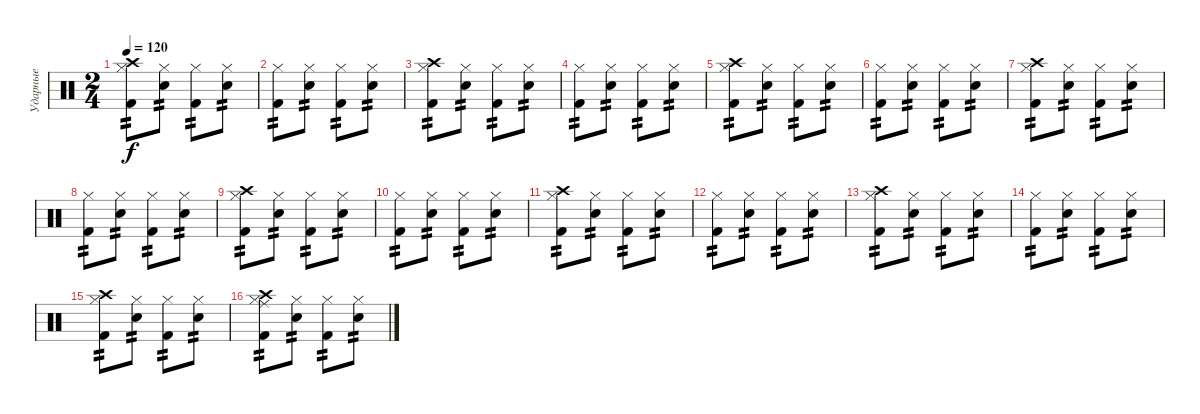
\track ("Ударные" "Ударные") {instrument percussion}
\staff {score}
\articulation defaults
\ts (2 4)
\tempo 120
\clef neutral
\ks c
("Crash high (hit)" "Hi-Hat (closed)" "Kick (hit) 2").8{tp 2 dy f} ("Hi-Hat (closed)" "Snare (hit) 2").8{tp 2} ("Hi-Hat (closed)" "Kick (hit) 2").8{tp 2} ("Hi-Hat (closed)" "Snare (hit) 2").8{tp 2} |
("Hi-Hat (closed)" "Kick (hit) 2").8{tp 2} ("Hi-Hat (closed)" "Snare (hit) 2").8{tp 2} ("Hi-Hat (closed)" "Kick (hit) 2").8{tp 2} ("Hi-Hat (closed)" "Snare (hit) 2").8{tp 2} |
("Crash high (hit)" "Hi-Hat (closed)" "Kick (hit) 2").8{tp 2} ("Hi-Hat (closed)" "Snare (hit) 2").8{tp 2} ("Hi-Hat (closed)" "Kick (hit) 2").8{tp 2} ("Hi-Hat (closed)" "Snare (hit) 2").8{tp 2} |
("Hi-Hat (closed)" "Kick (hit) 2").8{tp 2} ("Hi-Hat (closed)" "Snare (hit) 2").8{tp 2} ("Hi-Hat (closed)" "Kick (hit) 2").8{tp 2} ("Hi-Hat (closed)" "Snare (hit) 2").8{tp 2} |
("Crash high (hit)" "Hi-Hat (closed)" "Kick (hit) 2").8{tp 2} ("Hi-Hat (closed)" "Snare (hit) 2").8{tp 2} ("Hi-Hat (closed)" "Kick (hit) 2").8{tp 2} ("Hi-Hat (closed)" "Snare (hit) 2").8{tp 2} |
("Hi-Hat (closed)" "Kick (hit) 2").8{tp 2} ("Hi-Hat (closed)" "Snare (hit) 2").8{tp 2} ("Hi-Hat (closed)" "Kick (hit) 2").8{tp 2} ("Hi-Hat (closed)" "Snare (hit) 2").8{tp 2} |
("Crash high (hit)" "Hi-Hat (closed)" "Kick (hit) 2").8{tp 2} ("Hi-Hat (closed)" "Snare (hit) 2").8{tp 2} ("Hi-Hat (closed)" "Kick (hit) 2").8{tp 2} ("Hi-Hat (closed)" "Snare (hit) 2").8{tp 2} |
("Hi-Hat (closed)" "Kick (hit) 2").8{tp 2} ("Hi-Hat (closed)" "Snare (hit) 2").8{tp 2} ("Hi-Hat (closed)" "Kick (hit) 2").8{tp 2} ("Hi-Hat (closed)" "Snare (hit) 2").8{tp 2} |
("Crash high (hit)" "Hi-Hat (closed)" "Kick (hit) 2").8{tp 2} ("Hi-Hat (closed)" "Snare (hit) 2").8{tp 2} ("Hi-Hat (closed)" "Kick (hit) 2").8{tp 2} ("Hi-Hat (closed)" "Snare (hit) 2").8{tp 2} |
("Hi-Hat (closed)" "Kick (hit) 2").8{tp 2} ("Hi-Hat (closed)" "Snare (hit) 2").8{tp 2} ("Hi-Hat (closed)" "Kick (hit) 2").8{tp 2} ("Hi-Hat (closed)" "Snare (hit) 2").8{tp 2} |
("Crash high (hit)" "Hi-Hat (closed)" "Kick (hit) 2").8{tp 2} ("Hi-Hat (closed)" "Snare (hit) 2").8{tp 2} ("Hi-Hat (closed)" "Kick (hit) 2").8{tp 2} ("Hi-Hat (closed)" "Snare (hit) 2").8{tp 2} |
("Hi-Hat (closed)" "Kick (hit) 2").8{tp 2} ("Hi-Hat (closed)" "Snare (hit) 2").8{tp 2} ("Hi-Hat (closed)" "Kick (hit) 2").8{tp 2} ("Hi-Hat (closed)" "Snare (hit) 2").8{tp 2} |
("Crash high (hit)" "Hi-Hat (closed)" "Kick (hit) 2").8{tp 2} ("Hi-Hat (closed)" "Snare (hit) 2").8{tp 2} ("Hi-Hat (closed)" "Kick (hit) 2").8{tp 2} ("Hi-Hat (closed)" "Snare (hit) 2").8{tp 2} |
("Hi-Hat (closed)" "Kick (hit) 2").8{tp 2} ("Hi-Hat (closed)" "Snare (hit) 2").8{tp 2} ("Hi-Hat (closed)" "Kick (hit) 2").8{tp 2} ("Hi-Hat (closed)" "Snare (hit) 2").8{tp 2} |
("Crash high (hit)" "Hi-Hat (closed)" "Kick (hit) 2").8{tp 2} ("Hi-Hat (closed)" "Snare (hit) 2").8{tp 2} ("Hi-Hat (closed)" "Kick (hit) 2").8{tp 2} ("Hi-Hat (closed)" "Snare (hit) 2").8{tp 2} |
("Ride (middle)" "Crash high (hit)" "Hi-Hat (closed)" "Kick (hit) 2").8{tp 2} ("Hi-Hat (closed)" "Snare (hit) 2").8{tp 2} ("Hi-Hat (closed)" "Kick (hit) 2").8{tp 2} ("Hi-Hat (closed)" "Snare (hit) 2").8{tp 2}
